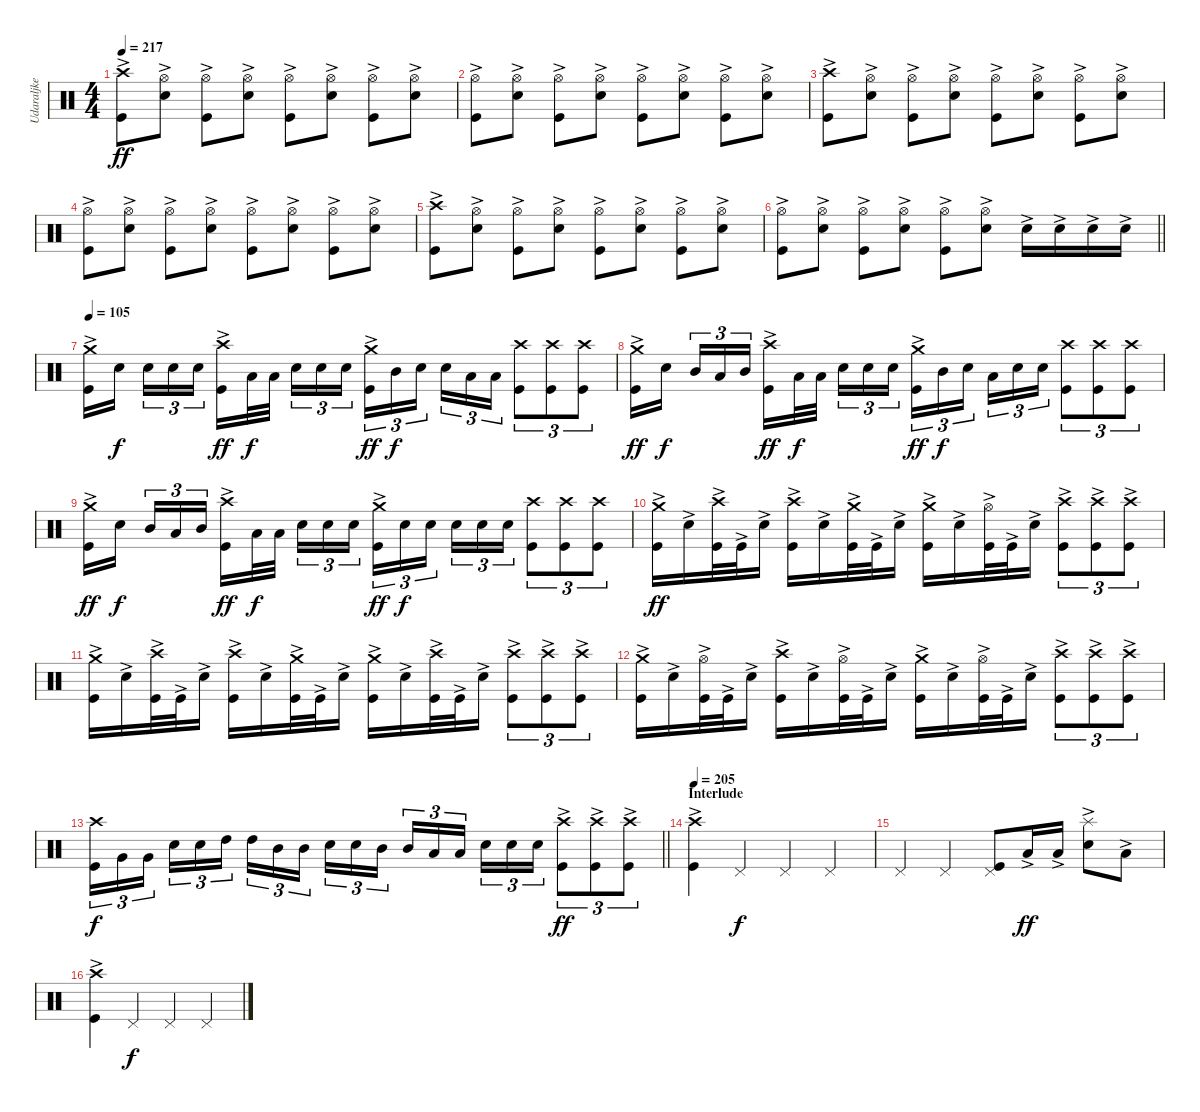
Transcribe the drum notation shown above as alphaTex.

\track ("Udaraljke" "Udaraljke") {instrument percussion}
\staff {score}
\articulation defaults
\ts (4 4)
\tempo 217
\clef neutral
\ks c
("Kick (hit)"{ac} "Crash high (hit)"{ac}).8{dy ff} ("Snare (hit) 2"{ac} "Hi-Hat (open)").8 ("Kick (hit)"{ac} "Hi-Hat (open)").8 ("Snare (hit) 2"{ac} "Hi-Hat (open)").8 ("Kick (hit)"{ac} "Hi-Hat (open)").8 ("Snare (hit) 2"{ac} "Hi-Hat (open)").8 ("Kick (hit)"{ac} "Hi-Hat (open)").8 ("Snare (hit) 2"{ac} "Hi-Hat (open)").8 |
("Kick (hit)"{ac} "Hi-Hat (open)"{ac}).8 ("Snare (hit) 2"{ac} "Hi-Hat (open)").8 ("Kick (hit)"{ac} "Hi-Hat (open)").8 ("Snare (hit) 2"{ac} "Hi-Hat (open)").8 ("Kick (hit)"{ac} "Hi-Hat (open)").8 ("Snare (hit) 2"{ac} "Hi-Hat (open)").8 ("Kick (hit)"{ac} "Hi-Hat (open)").8 ("Snare (hit) 2"{ac} "Hi-Hat (open)").8 |
("Kick (hit)"{ac} "Crash high (hit)"{ac}).8 ("Snare (hit) 2"{ac} "Hi-Hat (open)").8 ("Kick (hit)"{ac} "Hi-Hat (open)").8 ("Snare (hit) 2"{ac} "Hi-Hat (open)").8 ("Kick (hit)"{ac} "Hi-Hat (open)").8 ("Snare (hit) 2"{ac} "Hi-Hat (open)").8 ("Kick (hit)"{ac} "Hi-Hat (open)").8 ("Snare (hit) 2"{ac} "Hi-Hat (open)").8 |
("Kick (hit)"{ac} "Hi-Hat (open)"{ac}).8 ("Snare (hit) 2"{ac} "Hi-Hat (open)").8 ("Kick (hit)"{ac} "Hi-Hat (open)").8 ("Snare (hit) 2"{ac} "Hi-Hat (open)").8 ("Kick (hit)"{ac} "Hi-Hat (open)").8 ("Snare (hit) 2"{ac} "Hi-Hat (open)").8 ("Kick (hit)"{ac} "Hi-Hat (open)").8 ("Snare (hit) 2"{ac} "Hi-Hat (open)").8 |
("Kick (hit)"{ac} "Crash high (hit)"{ac}).8 ("Snare (hit) 2"{ac} "Hi-Hat (open)").8 ("Kick (hit)"{ac} "Hi-Hat (open)").8 ("Snare (hit) 2"{ac} "Hi-Hat (open)").8 ("Kick (hit)"{ac} "Hi-Hat (open)").8 ("Snare (hit) 2"{ac} "Hi-Hat (open)").8 ("Kick (hit)"{ac} "Hi-Hat (open)").8 ("Snare (hit) 2"{ac} "Hi-Hat (open)").8 |
\barLineRight lightlight
("Kick (hit)"{ac} "Hi-Hat (open)"{ac}).8 ("Snare (hit) 2"{ac} "Hi-Hat (open)").8 ("Kick (hit)"{ac} "Hi-Hat (open)").8 ("Snare (hit) 2"{ac} "Hi-Hat (open)").8 ("Kick (hit)"{ac} "Hi-Hat (open)").8 ("Snare (hit) 2"{ac} "Hi-Hat (open)").8 "Snare (hit) 2"{ac}.16 "Snare (hit) 2"{ac}.16 "Snare (hit) 2"{ac}.16 "Snare (hit) 2"{ac}.16 |
\section ("" "")
\tempo 105
("Kick (hit)"{ac} "Crash medium (hit)").16 "Snare (hit) 2".16{dy f beam splitsecondary} "Snare (hit) 2".16{tu (3 2)} "Snare (hit) 2".16{tu (3 2)} "Snare (hit) 2".16{tu (3 2)} ("Kick (hit)"{ac} "Crash high (hit)").16{dy ff} "Low Tom (hit)".32{dy f} "Low Tom (hit)".32{beam splitsecondary} "Snare (hit) 2".16{tu (3 2)} "Snare (hit) 2".16{tu (3 2)} "Snare (hit) 2".16{tu (3 2)} ("Kick (hit)"{ac} "Crash medium (hit)").16{tu (3 2) dy ff} "Mid Tom (hit)".16{tu (3 2) dy f} "Snare (hit) 2".16{tu (3 2) beam splitsecondary} "Snare (hit) 2".16{tu (3 2)} "Low Tom (hit)".16{tu (3 2)} "Low Tom (hit)".16{tu (3 2)} ("Kick (hit)" "Crash high (hit)").8{tu (3 2)} ("Kick (hit)" "Crash high (hit)").8{tu (3 2)} ("Kick (hit)" "Crash high (hit)").8{tu (3 2)} |
("Kick (hit)"{ac} "Crash medium (hit)").16{dy ff} "Snare (hit) 2".16{dy f beam splitsecondary} "Mid Tom (hit)".16{tu (3 2)} "Low Tom (hit)".16{tu (3 2)} "Mid Tom (hit)".16{tu (3 2)} ("Kick (hit)"{ac} "Crash high (hit)").16{dy ff} "Low Tom (hit)".32{dy f} "Low Tom (hit)".32{beam splitsecondary} "Snare (hit) 2".16{tu (3 2)} "Snare (hit) 2".16{tu (3 2)} "Snare (hit) 2".16{tu (3 2)} ("Kick (hit)"{ac} "Crash medium (hit)").16{tu (3 2) dy ff} "Mid Tom (hit)".16{tu (3 2) dy f} "Snare (hit) 2".16{tu (3 2) beam splitsecondary} "Low Tom (hit)".16{tu (3 2)} "Snare (hit) 2".16{tu (3 2)} "Snare (hit) 2".16{tu (3 2)} ("Kick (hit)" "Crash high (hit)").8{tu (3 2)} ("Kick (hit)" "Crash high (hit)").8{tu (3 2)} ("Kick (hit)" "Crash high (hit)").8{tu (3 2)} |
("Kick (hit)"{ac} "Crash medium (hit)").16{dy ff} "Snare (hit) 2".16{dy f beam splitsecondary} "Mid Tom (hit)".16{tu (3 2)} "Low Tom (hit)".16{tu (3 2)} "Mid Tom (hit)".16{tu (3 2)} ("Kick (hit)"{ac} "Crash high (hit)").16{dy ff} "Low Tom (hit)".32{dy f} "Low Tom (hit)".32{beam splitsecondary} "Snare (hit) 2".16{tu (3 2)} "Snare (hit) 2".16{tu (3 2)} "Snare (hit) 2".16{tu (3 2)} ("Kick (hit)"{ac} "Crash medium (hit)").16{tu (3 2) dy ff} "Snare (hit) 2".16{tu (3 2) dy f} "Snare (hit) 2".16{tu (3 2) beam splitsecondary} "Snare (hit) 2".16{tu (3 2)} "Snare (hit) 2".16{tu (3 2)} "Snare (hit) 2".16{tu (3 2)} ("Kick (hit)" "Crash high (hit)").8{tu (3 2)} ("Kick (hit)" "Crash high (hit)").8{tu (3 2)} ("Kick (hit)" "Crash high (hit)").8{tu (3 2)} |
("Kick (hit)"{ac} "Crash medium (hit)").16{dy ff} "Snare (hit) 2"{ac}.16 ("Kick (hit)"{ac} "Crash high (hit)").32 "Kick (hit)"{ac}.32 "Snare (hit) 2"{ac}.16 ("Kick (hit)"{ac} "Crash high (hit)").16 "Snare (hit) 2"{ac}.16 ("Kick (hit)"{ac} "Crash medium (hit)").32 "Kick (hit)"{ac}.32 "Snare (hit) 2"{ac}.16 ("Kick (hit)"{ac} "Crash medium (hit)").16 "Snare (hit) 2"{ac}.16 ("Kick (hit)"{ac} "Hi-Hat (open)").32 "Kick (hit)"{ac}.32 "Snare (hit) 2"{ac}.16 ("Kick (hit)"{ac} "Crash high (hit)").8{tu (3 2)} ("Kick (hit)"{ac} "Crash high (hit)").8{tu (3 2)} ("Kick (hit)"{ac} "Crash high (hit)").8{tu (3 2)} |
("Kick (hit)"{ac} "Crash medium (hit)").16 "Snare (hit) 2"{ac}.16 ("Kick (hit)"{ac} "Crash high (hit)").32 "Kick (hit)"{ac}.32 "Snare (hit) 2"{ac}.16 ("Kick (hit)"{ac} "Crash high (hit)").16 "Snare (hit) 2"{ac}.16 ("Kick (hit)"{ac} "Crash medium (hit)").32 "Kick (hit)"{ac}.32 "Snare (hit) 2"{ac}.16 ("Kick (hit)"{ac} "Crash medium (hit)").16 "Snare (hit) 2"{ac}.16 ("Kick (hit)"{ac} "Crash high (hit)").32 "Kick (hit)"{ac}.32 "Snare (hit) 2"{ac}.16 ("Kick (hit)"{ac} "Crash high (hit)").8{tu (3 2)} ("Kick (hit)"{ac} "Crash high (hit)").8{tu (3 2)} ("Kick (hit)"{ac} "Crash high (hit)").8{tu (3 2)} |
("Kick (hit)"{ac} "Crash medium (hit)").16 "Snare (hit) 2"{ac}.16 ("Kick (hit)"{ac} "Hi-Hat (open)").32 "Kick (hit)"{ac}.32 "Snare (hit) 2"{ac}.16 ("Kick (hit)"{ac} "Crash high (hit)").16 "Snare (hit) 2"{ac}.16 ("Kick (hit)"{ac} "Hi-Hat (open)").32 "Kick (hit)"{ac}.32 "Snare (hit) 2"{ac}.16 ("Kick (hit)"{ac} "Crash medium (hit)").16 "Snare (hit) 2"{ac}.16 ("Kick (hit)"{ac} "Hi-Hat (open)").32 "Kick (hit)"{ac}.32 "Snare (hit) 2"{ac}.16 ("Kick (hit)"{ac} "Crash high (hit)").8{tu (3 2)} ("Kick (hit)"{ac} "Crash high (hit)").8{tu (3 2)} ("Kick (hit)"{ac} "Crash high (hit)").8{tu (3 2)} |
\barLineRight lightlight
("Kick (hit)" "Crash high (hit)").16{tu (3 2) dy f} "Very Low Tom (hit)".16{tu (3 2)} "Very Low Tom (hit)".16{tu (3 2) beam splitsecondary} "Snare (hit) 2".16{tu (3 2)} "Snare (hit) 2".16{tu (3 2)} "High Tom (hit)".16{tu (3 2)} "High Tom (hit)".16{tu (3 2)} "Mid Tom (hit)".16{tu (3 2)} "Mid Tom (hit)".16{tu (3 2) beam splitsecondary} "Snare (hit) 2".16{tu (3 2)} "Snare (hit) 2".16{tu (3 2)} "Mid Tom (hit)".16{tu (3 2)} "Mid Tom (hit)".16{tu (3 2)} "Low Tom (hit)".16{tu (3 2)} "Low Tom (hit)".16{tu (3 2) beam splitsecondary} "Snare (hit) 2".16{tu (3 2)} "Snare (hit) 2".16{tu (3 2)} "Snare (hit) 2".16{tu (3 2)} ("Kick (hit)"{ac} "Crash high (hit)").8{tu (3 2) dy ff} ("Kick (hit)"{ac} "Crash high (hit)").8{tu (3 2)} ("Kick (hit)"{ac} "Crash high (hit)").8{tu (3 2)} |
\section ("" "Interlude")
\tempo 205
("Kick (hit)"{ac} "Crash high (hit)"{ac}).4 "Pedal Hi-Hat (hit)".4{dy f} "Pedal Hi-Hat (hit)".4 "Pedal Hi-Hat (hit)".4 |
"Pedal Hi-Hat (hit)".4 "Pedal Hi-Hat (hit)".4 ("Kick (hit)" "Pedal Hi-Hat (hit)").8 "Low Tom (hit)"{ac}.16{dy ff} "Low Tom (hit)"{ac}.16 ("Snare (hit) 2"{ac} "Splash (hit)").8 "Low Tom (hit)"{ac}.8 |
("Kick (hit)"{ac} "Crash high (hit)"{ac}).4 "Pedal Hi-Hat (hit)".4{dy f} "Pedal Hi-Hat (hit)".4 "Pedal Hi-Hat (hit)".4
